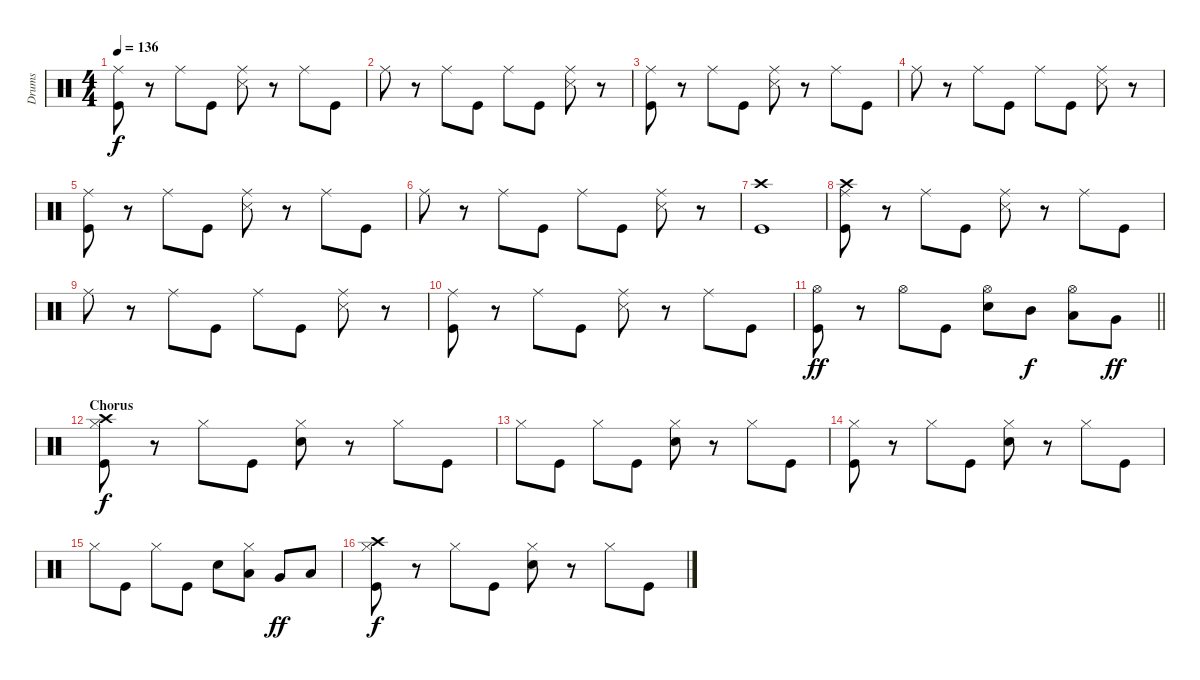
\track ("Drums" "Drums") {instrument percussion}
\staff {score}
\articulation defaults
\ts (4 4)
\tempo 136
\clef neutral
\ks c
("Kick (hit)" "Ride (middle)").8{dy f} r.8 "Ride (middle)".8 "Kick (hit)".8 ("Snare (side stick) 3" "Ride (middle)").8 r.8 "Ride (middle)".8 "Kick (hit)".8 |
"Ride (middle)".8 r.8 "Ride (middle)".8 "Kick (hit)".8 "Ride (middle)".8 "Kick (hit)".8 ("Snare (side stick) 3" "Ride (middle)").8 r.8 |
("Kick (hit)" "Ride (middle)").8 r.8 "Ride (middle)".8 "Kick (hit)".8 ("Snare (side stick) 3" "Ride (middle)").8 r.8 "Ride (middle)".8 "Kick (hit)".8 |
"Ride (middle)".8 r.8 "Ride (middle)".8 "Kick (hit)".8 "Ride (middle)".8 "Kick (hit)".8 ("Snare (side stick) 3" "Ride (middle)").8 r.8 |
("Kick (hit)" "Ride (middle)").8 r.8 "Ride (middle)".8 "Kick (hit)".8 ("Snare (side stick) 3" "Ride (middle)").8 r.8 "Ride (middle)".8 "Kick (hit)".8 |
"Ride (middle)".8 r.8 "Ride (middle)".8 "Kick (hit)".8 "Ride (middle)".8 "Kick (hit)".8 ("Snare (side stick) 3" "Ride (middle)").8 r.8 |
("Crash high (hit)" "Kick (hit)").1 |
("Crash high (hit)" "Kick (hit)" "Ride (middle)").8 r.8 "Ride (middle)".8 "Kick (hit)".8 ("Snare (side stick) 3" "Ride (middle)").8 r.8 "Ride (middle)".8 "Kick (hit)".8 |
"Ride (middle)".8 r.8 "Ride (middle)".8 "Kick (hit)".8 "Ride (middle)".8 "Kick (hit)".8 ("Snare (side stick) 3" "Ride (middle)").8 r.8 |
("Kick (hit)" "Ride (middle)").8 r.8 "Ride (middle)".8 "Kick (hit)".8 ("Snare (side stick) 3" "Ride (middle)").8 r.8 "Ride (middle)".8 "Kick (hit)".8 |
\barLineRight lightlight
("Kick (hit)" "Hi-Hat (open)").8{dy ff} r.8 "Hi-Hat (open)".8 "Kick (hit)".8 ("Snare (hit) 2" "Hi-Hat (open)").8 "Mid Tom (hit)".8{dy f} ("Low Tom (hit)" "Hi-Hat (open)").8 "Very Low Tom (hit)".8{dy ff} |
\section ("" "Chorus")
("Crash high (hit)" "Kick (hit)" "Hi-Hat (closed)").8{dy f} r.8 "Hi-Hat (closed)".8 "Kick (hit)".8 ("Snare (hit) 2" "Hi-Hat (closed)").8 r.8 "Hi-Hat (closed)".8 "Kick (hit)".8 |
"Hi-Hat (closed)".8 "Kick (hit)".8 "Hi-Hat (closed)".8 "Kick (hit)".8 ("Snare (hit) 2" "Hi-Hat (closed)").8 r.8 "Hi-Hat (closed)".8 "Kick (hit)".8 |
("Kick (hit)" "Hi-Hat (closed)").8 r.8 "Hi-Hat (closed)".8 "Kick (hit)".8 ("Snare (hit) 2" "Hi-Hat (closed)").8 r.8 "Hi-Hat (closed)".8 "Kick (hit)".8 |
"Hi-Hat (closed)".8 "Kick (hit)".8 "Hi-Hat (closed)".8 "Kick (hit)".8 "Snare (hit) 2".8 ("Low Tom (hit)" "Hi-Hat (closed)").8 "Very Low Tom (hit)".8{dy ff} "Low Floor Tom (hit)".8 |
("Crash high (hit)" "Kick (hit)" "Hi-Hat (closed)").8{dy f} r.8 "Hi-Hat (closed)".8 "Kick (hit)".8 ("Snare (hit) 2" "Hi-Hat (closed)").8 r.8 "Hi-Hat (closed)".8 "Kick (hit)".8
